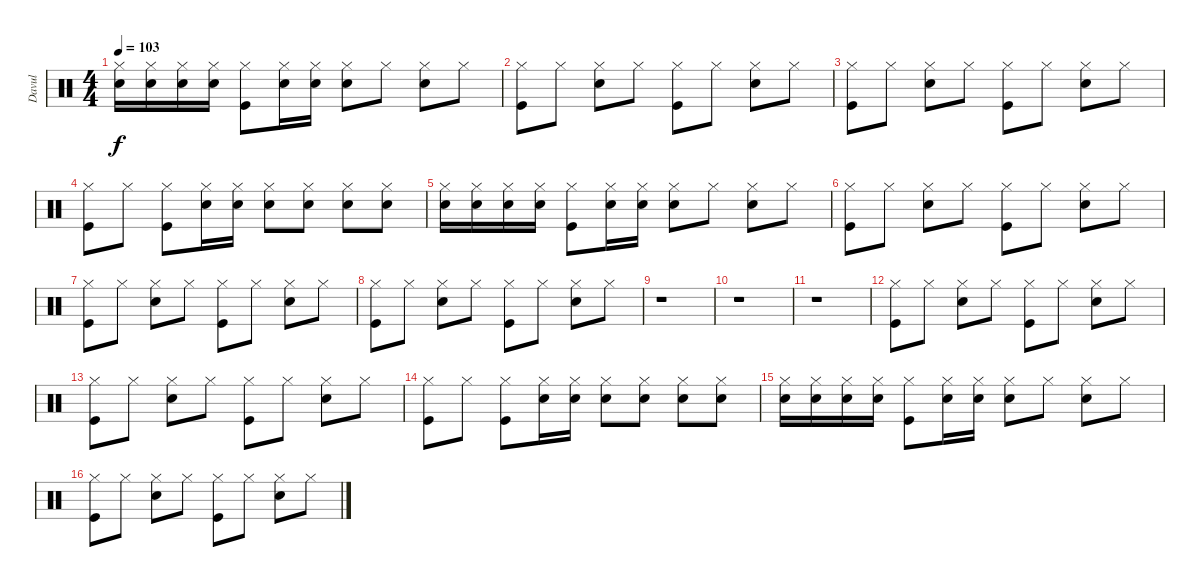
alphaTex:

\track ("Davul" "Davul") {instrument percussion}
\staff {score}
\articulation defaults
\ts (4 4)
\tempo 103
\clef neutral
\ks c
("Hi-Hat (closed)" "Electric Snare (hit)").16{dy f} ("Hi-Hat (closed)" "Electric Snare (hit)").16 ("Hi-Hat (closed)" "Electric Snare (hit)").16 ("Hi-Hat (closed)" "Electric Snare (hit)").16 ("Hi-Hat (closed)" "Kick (hit)").8 ("Hi-Hat (closed)" "Electric Snare (hit)").16 ("Hi-Hat (closed)" "Electric Snare (hit)").16 ("Hi-Hat (closed)" "Electric Snare (hit)").8 "Hi-Hat (closed)".8 ("Hi-Hat (closed)" "Electric Snare (hit)").8 "Hi-Hat (closed)".8 |
("Hi-Hat (closed)" "Kick (hit)").8 "Hi-Hat (closed)".8 ("Hi-Hat (closed)" "Electric Snare (hit)").8 "Hi-Hat (closed)".8 ("Hi-Hat (closed)" "Kick (hit)").8 "Hi-Hat (closed)".8 ("Hi-Hat (closed)" "Electric Snare (hit)").8 "Hi-Hat (closed)".8 |
("Hi-Hat (closed)" "Kick (hit)").8 "Hi-Hat (closed)".8 ("Hi-Hat (closed)" "Electric Snare (hit)").8 "Hi-Hat (closed)".8 ("Hi-Hat (closed)" "Kick (hit)").8 "Hi-Hat (closed)".8 ("Hi-Hat (closed)" "Electric Snare (hit)").8 "Hi-Hat (closed)".8 |
("Hi-Hat (closed)" "Kick (hit)").8 "Hi-Hat (closed)".8 ("Hi-Hat (closed)" "Kick (hit)").8 ("Hi-Hat (closed)" "Electric Snare (hit)").16 ("Hi-Hat (closed)" "Electric Snare (hit)").16 ("Hi-Hat (closed)" "Electric Snare (hit)").8 ("Hi-Hat (closed)" "Electric Snare (hit)").8 ("Hi-Hat (closed)" "Electric Snare (hit)").8 ("Hi-Hat (closed)" "Electric Snare (hit)").8 |
("Hi-Hat (closed)" "Electric Snare (hit)").16 ("Hi-Hat (closed)" "Electric Snare (hit)").16 ("Hi-Hat (closed)" "Electric Snare (hit)").16 ("Hi-Hat (closed)" "Electric Snare (hit)").16 ("Hi-Hat (closed)" "Kick (hit)").8 ("Hi-Hat (closed)" "Electric Snare (hit)").16 ("Hi-Hat (closed)" "Electric Snare (hit)").16 ("Hi-Hat (closed)" "Electric Snare (hit)").8 "Hi-Hat (closed)".8 ("Hi-Hat (closed)" "Electric Snare (hit)").8 "Hi-Hat (closed)".8 |
("Hi-Hat (closed)" "Kick (hit)").8 "Hi-Hat (closed)".8 ("Hi-Hat (closed)" "Electric Snare (hit)").8 "Hi-Hat (closed)".8 ("Hi-Hat (closed)" "Kick (hit)").8 "Hi-Hat (closed)".8 ("Hi-Hat (closed)" "Electric Snare (hit)").8 "Hi-Hat (closed)".8 |
("Hi-Hat (closed)" "Kick (hit)").8 "Hi-Hat (closed)".8 ("Hi-Hat (closed)" "Electric Snare (hit)").8 "Hi-Hat (closed)".8 ("Hi-Hat (closed)" "Kick (hit)").8 "Hi-Hat (closed)".8 ("Hi-Hat (closed)" "Electric Snare (hit)").8 "Hi-Hat (closed)".8 |
("Hi-Hat (closed)" "Kick (hit)").8 "Hi-Hat (closed)".8 ("Hi-Hat (closed)" "Electric Snare (hit)").8 "Hi-Hat (closed)".8 ("Hi-Hat (closed)" "Kick (hit)").8 "Hi-Hat (closed)".8 ("Hi-Hat (closed)" "Electric Snare (hit)").8 "Hi-Hat (closed)".8 |
r.1 |
r.1 |
r.1 |
("Hi-Hat (closed)" "Kick (hit)").8 "Hi-Hat (closed)".8 ("Hi-Hat (closed)" "Electric Snare (hit)").8 "Hi-Hat (closed)".8 ("Hi-Hat (closed)" "Kick (hit)").8 "Hi-Hat (closed)".8 ("Hi-Hat (closed)" "Electric Snare (hit)").8 "Hi-Hat (closed)".8 |
("Hi-Hat (closed)" "Kick (hit)").8 "Hi-Hat (closed)".8 ("Hi-Hat (closed)" "Electric Snare (hit)").8 "Hi-Hat (closed)".8 ("Hi-Hat (closed)" "Kick (hit)").8 "Hi-Hat (closed)".8 ("Hi-Hat (closed)" "Electric Snare (hit)").8 "Hi-Hat (closed)".8 |
("Hi-Hat (closed)" "Kick (hit)").8 "Hi-Hat (closed)".8 ("Hi-Hat (closed)" "Kick (hit)").8 ("Hi-Hat (closed)" "Electric Snare (hit)").16 ("Hi-Hat (closed)" "Electric Snare (hit)").16 ("Hi-Hat (closed)" "Electric Snare (hit)").8 ("Hi-Hat (closed)" "Electric Snare (hit)").8 ("Hi-Hat (closed)" "Electric Snare (hit)").8 ("Hi-Hat (closed)" "Electric Snare (hit)").8 |
("Hi-Hat (closed)" "Electric Snare (hit)").16 ("Hi-Hat (closed)" "Electric Snare (hit)").16 ("Hi-Hat (closed)" "Electric Snare (hit)").16 ("Hi-Hat (closed)" "Electric Snare (hit)").16 ("Hi-Hat (closed)" "Kick (hit)").8 ("Hi-Hat (closed)" "Electric Snare (hit)").16 ("Hi-Hat (closed)" "Electric Snare (hit)").16 ("Hi-Hat (closed)" "Electric Snare (hit)").8 "Hi-Hat (closed)".8 ("Hi-Hat (closed)" "Electric Snare (hit)").8 "Hi-Hat (closed)".8 |
("Hi-Hat (closed)" "Kick (hit)").8 "Hi-Hat (closed)".8 ("Hi-Hat (closed)" "Electric Snare (hit)").8 "Hi-Hat (closed)".8 ("Hi-Hat (closed)" "Kick (hit)").8 "Hi-Hat (closed)".8 ("Hi-Hat (closed)" "Electric Snare (hit)").8 "Hi-Hat (closed)".8
